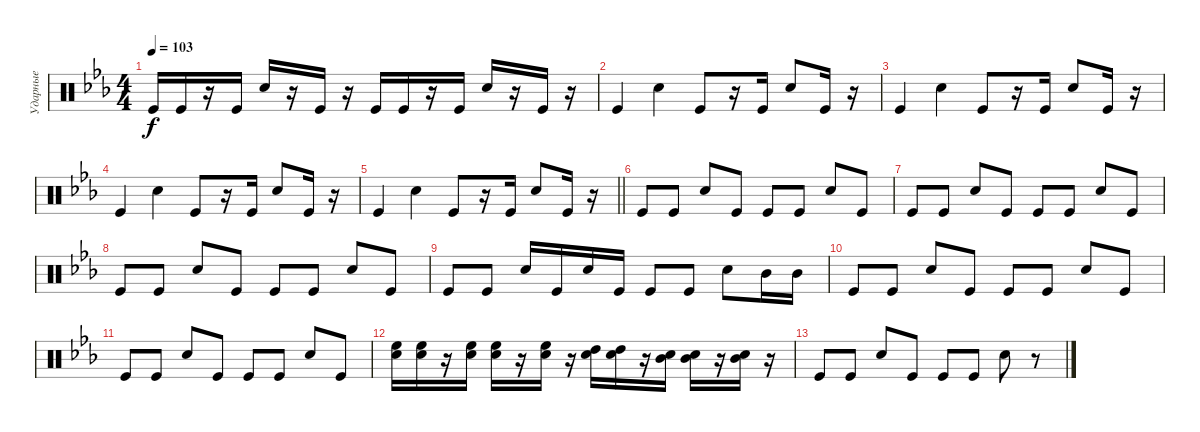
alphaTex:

\track ("Ударные" "Ударные") {instrument percussion}
\staff {score}
\articulation defaults
\ts (4 4)
\tempo 103
\clef neutral
\ks cminor "Kick (hit)".16{dy f} "Kick (hit)".16
r.16 "Kick (hit)".16 "Electric Snare (hit)".16 r.16 "Kick (hit)".16 r.16 "Kick (hit)".16 "Kick (hit)".16 r.16 "Kick (hit)".16 "Electric Snare (hit)".16 r.16 "Kick (hit)".16 r.16 |
"Kick (hit)".4 "Electric Snare (hit)".4 "Kick (hit)".8 r.16 "Kick (hit)".16 "Electric Snare (hit)".8 "Kick (hit)".16 r.16 |
"Kick (hit)".4 "Electric Snare (hit)".4 "Kick (hit)".8 r.16 "Kick (hit)".16 "Electric Snare (hit)".8 "Kick (hit)".16 r.16 |
"Kick (hit)".4 "Electric Snare (hit)".4 "Kick (hit)".8 r.16 "Kick (hit)".16 "Electric Snare (hit)".8 "Kick (hit)".16 r.16 |
\barLineRight lightlight "Kick (hit)".4 "Electric Snare (hit)".4 "Kick (hit)".8
r.16 "Kick (hit)".16 "Electric Snare (hit)".8 "Kick (hit)".16 r.16 |
"Kick (hit)".8 "Kick (hit)".8 "Electric Snare (hit)".8 "Kick (hit)".8 "Kick (hit)".8 "Kick (hit)".8 "Electric Snare (hit)".8 "Kick (hit)".8 |
"Kick (hit)".8 "Kick (hit)".8 "Electric Snare (hit)".8 "Kick (hit)".8 "Kick (hit)".8 "Kick (hit)".8 "Electric Snare (hit)".8 "Kick (hit)".8 |
"Kick (hit)".8 "Kick (hit)".8 "Electric Snare (hit)".8 "Kick (hit)".8 "Kick (hit)".8 "Kick (hit)".8 "Electric Snare (hit)".8 "Kick (hit)".8 |
"Kick (hit)".8 "Kick (hit)".8 "Electric Snare (hit)".16 "Kick (hit)".16 "Electric Snare (hit)".16 "Kick (hit)".16 "Kick (hit)".8 "Kick (hit)".8 "Electric Snare (hit)".8 "Mid Tom (hit)".16 "Mid Tom (hit)".16 |
"Kick (hit)".8 "Kick (hit)".8 "Electric Snare (hit)".8 "Kick (hit)".8 "Kick (hit)".8 "Kick (hit)".8 "Electric Snare (hit)".8 "Kick (hit)".8 |
"Kick (hit)".8 "Kick (hit)".8 "Electric Snare (hit)".8 "Kick (hit)".8 "Kick (hit)".8 "Kick (hit)".8 "Electric Snare (hit)".8 "Kick (hit)".8 |
("High Floor Tom (hit)" "Electric Snare (hit)").16 ("High Floor Tom (hit)" "Electric Snare (hit)").16 r.16 ("High Floor Tom (hit)" "Electric Snare (hit)").16 ("High Floor Tom (hit)" "Electric Snare (hit)").16 r.16 ("High Floor Tom (hit)" "Electric Snare (hit)").16 r.16 ("High Tom (hit)" "Electric Snare (hit)").16 ("High Tom (hit)" "Electric Snare (hit)").16 r.16 ("Mid Tom (hit)" "Electric Snare (hit)").16 ("Mid Tom (hit)" "Electric Snare (hit)").16 r.16 ("Mid Tom (hit)" "Electric Snare (hit)").16 r.16 |
"Kick (hit)".8 "Kick (hit)".8 "Electric Snare (hit)".8 "Kick (hit)".8 "Kick (hit)".8 "Kick (hit)".8 "Electric Snare (hit)".8 r.8
